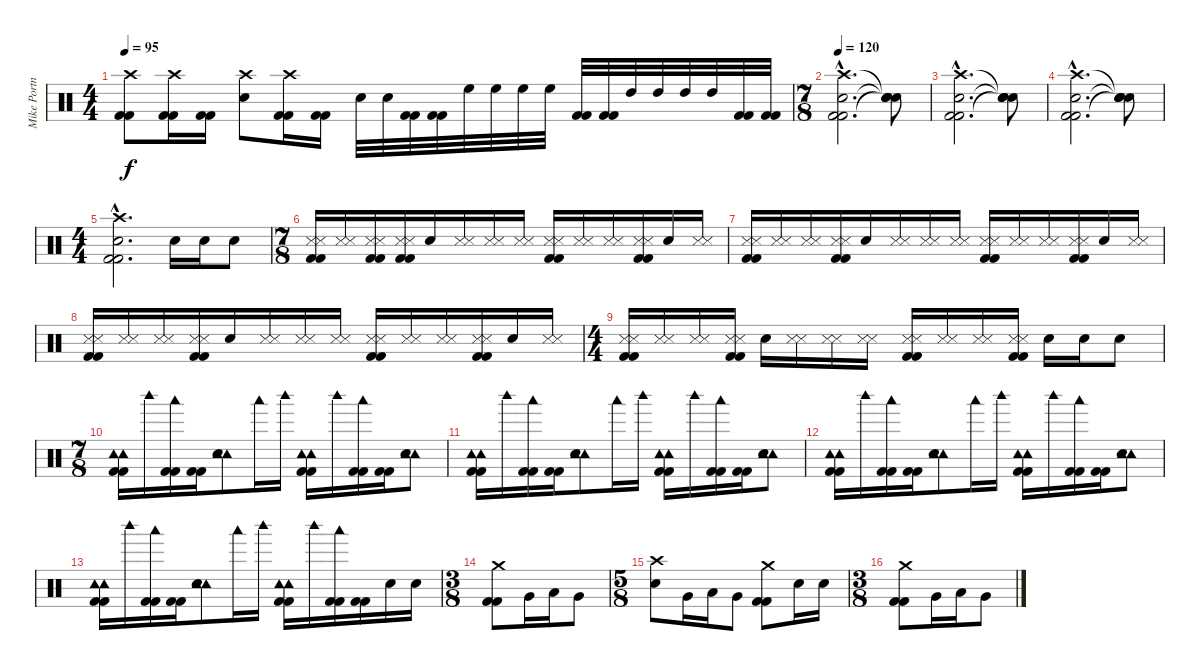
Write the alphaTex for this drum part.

\track ("Mike Portnoy" "Mike Portn") {instrument percussion}
\staff {score}
\articulation defaults
\ts (4 4)
\tempo 95
\clef neutral
\ks c
("Crash high (hit)" "Kick (hit) 2" "Kick (hit) 2").8{dy f} ("Crash high (hit)" "Kick (hit) 2" "Kick (hit) 2").16 ("Kick (hit) 2" "Kick (hit) 2").16 ("Crash high (hit)" "Snare (hit) 2").8 ("Crash high (hit)" "Kick (hit) 2" "Kick (hit) 2").16 ("Kick (hit) 2" "Kick (hit) 2").16 "Snare (hit) 2".32 "Snare (hit) 2".32 ("Kick (hit) 2" "Kick (hit) 2").32 ("Kick (hit) 2" "Kick (hit) 2").32 "High Floor Tom (hit)".32 "High Floor Tom (hit)".32 "High Floor Tom (hit)".32 "High Floor Tom (hit)".32 ("Kick (hit) 2" "Kick (hit) 2").32 ("Kick (hit) 2" "Kick (hit) 2").32 "High Tom (hit)".32 "High Tom (hit)".32 "High Tom (hit)".32 "High Tom (hit)".32 ("Kick (hit) 2" "Kick (hit) 2").32 ("Kick (hit) 2" "Kick (hit) 2").32 |
\ts (7 8)
\tempo 120
("Crash high (hit)"{hac} "Snare (hit) 2"{hac} "Kick (hit) 2"{hac} "Kick (hit) 2"{hac}).2{d} ("Snare (hit)"{t} "Snare (hit)"{t} "Snare (hit)"{t} "Snare (hit)"{t}).8 |
("Crash high (hit)"{hac} "Snare (hit) 2"{hac} "Kick (hit) 2"{hac} "Kick (hit) 2"{hac}).2{d} ("Snare (hit)"{t} "Snare (hit)"{t} "Snare (hit)"{t} "Snare (hit)"{t}).8 |
("Crash high (hit)"{hac} "Snare (hit) 2"{hac} "Kick (hit) 2"{hac} "Kick (hit) 2"{hac}).2{d} ("Snare (hit)"{t} "Snare (hit)"{t} "Snare (hit)"{t} "Snare (hit)"{t}).8 |
\ts (4 4)
("Crash high (hit)"{hac} "Snare (hit) 2"{hac} "Kick (hit) 2"{hac} "Kick (hit) 2"{hac}).2{d} "Snare (hit) 2".16 "Snare (hit) 2".16 "Snare (hit) 2".8 |
\ts (7 8)
("Snare (side stick) 3" "Snare (side stick) 3" "Kick (hit) 2" "Kick (hit) 2").16 ("Snare (side stick) 3" "Snare (side stick) 3").16 ("Snare (side stick) 3" "Snare (side stick) 3" "Kick (hit) 2" "Kick (hit) 2").16 ("Snare (side stick) 3" "Snare (side stick) 3" "Kick (hit) 2" "Kick (hit) 2").16 "Snare (hit) 2".16 ("Snare (side stick) 3" "Snare (side stick) 3").16 ("Snare (side stick) 3" "Snare (side stick) 3").16 ("Snare (side stick) 3" "Snare (side stick) 3").16 ("Snare (side stick) 3" "Snare (side stick) 3" "Kick (hit) 2" "Kick (hit) 2").16 ("Snare (side stick) 3" "Snare (side stick) 3").16 ("Snare (side stick) 3" "Snare (side stick) 3").16 ("Snare (side stick) 3" "Snare (side stick) 3" "Kick (hit) 2" "Kick (hit) 2").16 "Snare (hit) 2".16 ("Snare (side stick) 3" "Snare (side stick) 3").16 |
("Snare (side stick) 3" "Snare (side stick) 3" "Kick (hit) 2" "Kick (hit) 2").16 ("Snare (side stick) 3" "Snare (side stick) 3").16 ("Snare (side stick) 3" "Snare (side stick) 3").16 ("Snare (side stick) 3" "Snare (side stick) 3" "Kick (hit) 2" "Kick (hit) 2").16 "Snare (hit) 2".16 ("Snare (side stick) 3" "Snare (side stick) 3").16 ("Snare (side stick) 3" "Snare (side stick) 3").16 ("Snare (side stick) 3" "Snare (side stick) 3").16 ("Snare (side stick) 3" "Snare (side stick) 3" "Kick (hit) 2" "Kick (hit) 2").16 ("Snare (side stick) 3" "Snare (side stick) 3").16 ("Snare (side stick) 3" "Snare (side stick) 3").16 ("Snare (side stick) 3" "Snare (side stick) 3" "Kick (hit) 2" "Kick (hit) 2").16 "Snare (hit) 2".16 ("Snare (side stick) 3" "Snare (side stick) 3").16 |
("Snare (side stick) 3" "Snare (side stick) 3" "Kick (hit) 2" "Kick (hit) 2").16 ("Snare (side stick) 3" "Snare (side stick) 3").16 ("Snare (side stick) 3" "Snare (side stick) 3").16 ("Snare (side stick) 3" "Snare (side stick) 3" "Kick (hit) 2" "Kick (hit) 2").16 "Snare (hit) 2".16 ("Snare (side stick) 3" "Snare (side stick) 3").16 ("Snare (side stick) 3" "Snare (side stick) 3").16 ("Snare (side stick) 3" "Snare (side stick) 3").16 ("Snare (side stick) 3" "Snare (side stick) 3" "Kick (hit) 2" "Kick (hit) 2").16 ("Snare (side stick) 3" "Snare (side stick) 3").16 ("Snare (side stick) 3" "Snare (side stick) 3").16 ("Snare (side stick) 3" "Snare (side stick) 3" "Kick (hit) 2" "Kick (hit) 2").16 "Snare (hit) 2".16 ("Snare (side stick) 3" "Snare (side stick) 3").16 |
\ts (4 4)
("Snare (side stick) 3" "Snare (side stick) 3" "Kick (hit) 2" "Kick (hit) 2").16 ("Snare (side stick) 3" "Snare (side stick) 3").16 ("Snare (side stick) 3" "Snare (side stick) 3").16 ("Snare (side stick) 3" "Snare (side stick) 3" "Kick (hit) 2" "Kick (hit) 2").16 "Snare (hit) 2".16 ("Snare (side stick) 3" "Snare (side stick) 3").16 ("Snare (side stick) 3" "Snare (side stick) 3").16 ("Snare (side stick) 3" "Snare (side stick) 3").16 ("Snare (side stick) 3" "Snare (side stick) 3" "Kick (hit) 2" "Kick (hit) 2").16 ("Snare (side stick) 3" "Snare (side stick) 3").16 ("Snare (side stick) 3" "Snare (side stick) 3").16 ("Snare (side stick) 3" "Snare (side stick) 3" "Kick (hit) 2" "Kick (hit) 2").16 "Snare (hit) 2".16 "Snare (hit) 2".16 "Snare (hit) 2".8 |
\ts (7 8)
("Tambourine (hit)" "Tambourine (hit)" "Kick (hit) 2" "Kick (hit) 2").16 "Woodblock high (hit)".16 ("Woodblock low (hit)" "Kick (hit) 2" "Kick (hit) 2").16 ("Kick (hit) 2" "Kick (hit) 2").16 ("Tambourine (hit)" "Tambourine (hit)" "Snare (hit) 2").8 "Woodblock low (hit)".16 "Woodblock high (hit)".16 ("Tambourine (hit)" "Tambourine (hit)" "Kick (hit) 2" "Kick (hit) 2").16 "Woodblock high (hit)".16 ("Woodblock low (hit)" "Kick (hit) 2" "Kick (hit) 2").16 ("Kick (hit) 2" "Kick (hit) 2").16 ("Tambourine (hit)" "Tambourine (hit)" "Snare (hit) 2").8 |
("Tambourine (hit)" "Tambourine (hit)" "Kick (hit) 2" "Kick (hit) 2").16 "Woodblock high (hit)".16 ("Woodblock low (hit)" "Kick (hit) 2" "Kick (hit) 2").16 ("Kick (hit) 2" "Kick (hit) 2").16 ("Tambourine (hit)" "Tambourine (hit)" "Snare (hit) 2").8 "Woodblock low (hit)".16 "Woodblock high (hit)".16 ("Tambourine (hit)" "Tambourine (hit)" "Kick (hit) 2" "Kick (hit) 2").16 "Woodblock high (hit)".16 ("Woodblock low (hit)" "Kick (hit) 2" "Kick (hit) 2").16 ("Kick (hit) 2" "Kick (hit) 2").16 ("Tambourine (hit)" "Tambourine (hit)" "Snare (hit) 2").8 |
("Tambourine (hit)" "Tambourine (hit)" "Kick (hit) 2" "Kick (hit) 2").16 "Woodblock high (hit)".16 ("Woodblock low (hit)" "Kick (hit) 2" "Kick (hit) 2").16 ("Kick (hit) 2" "Kick (hit) 2").16 ("Tambourine (hit)" "Tambourine (hit)" "Snare (hit) 2").8 "Woodblock low (hit)".16 "Woodblock high (hit)".16 ("Tambourine (hit)" "Tambourine (hit)" "Kick (hit) 2" "Kick (hit) 2").16 "Woodblock high (hit)".16 ("Woodblock low (hit)" "Kick (hit) 2" "Kick (hit) 2").16 ("Kick (hit) 2" "Kick (hit) 2").16 ("Tambourine (hit)" "Tambourine (hit)" "Snare (hit) 2").8 |
("Tambourine (hit)" "Tambourine (hit)" "Kick (hit) 2" "Kick (hit) 2").16 "Woodblock high (hit)".16 ("Woodblock low (hit)" "Kick (hit) 2" "Kick (hit) 2").16 ("Kick (hit) 2" "Kick (hit) 2").16 ("Tambourine (hit)" "Tambourine (hit)" "Snare (hit) 2").8 "Woodblock low (hit)".16 "Woodblock high (hit)".16 ("Tambourine (hit)" "Tambourine (hit)" "Kick (hit) 2" "Kick (hit) 2").16 "Woodblock high (hit)".16 ("Woodblock low (hit)" "Kick (hit) 2" "Kick (hit) 2").16 ("Kick (hit) 2" "Kick (hit) 2").16 "Snare (hit) 2".16 "Snare (hit) 2".16 |
\ts (3 8)
("Crash medium (hit)" "Kick (hit) 2" "Kick (hit) 2").8 "Very Low Tom (hit)".16 "Low Tom (hit)".16 "Very Low Tom (hit)".8 |
\ts (5 8)
("Crash high (hit)" "Snare (hit) 2").8 "Very Low Tom (hit)".16 "Low Tom (hit)".16 "Very Low Tom (hit)".8 ("Crash medium (hit)" "Kick (hit) 2" "Kick (hit) 2").8 "Snare (hit) 2".16 "Snare (hit) 2".16 |
\ts (3 8)
("Crash medium (hit)" "Kick (hit) 2" "Kick (hit) 2").8 "Very Low Tom (hit)".16 "Low Tom (hit)".16 "Very Low Tom (hit)".8
